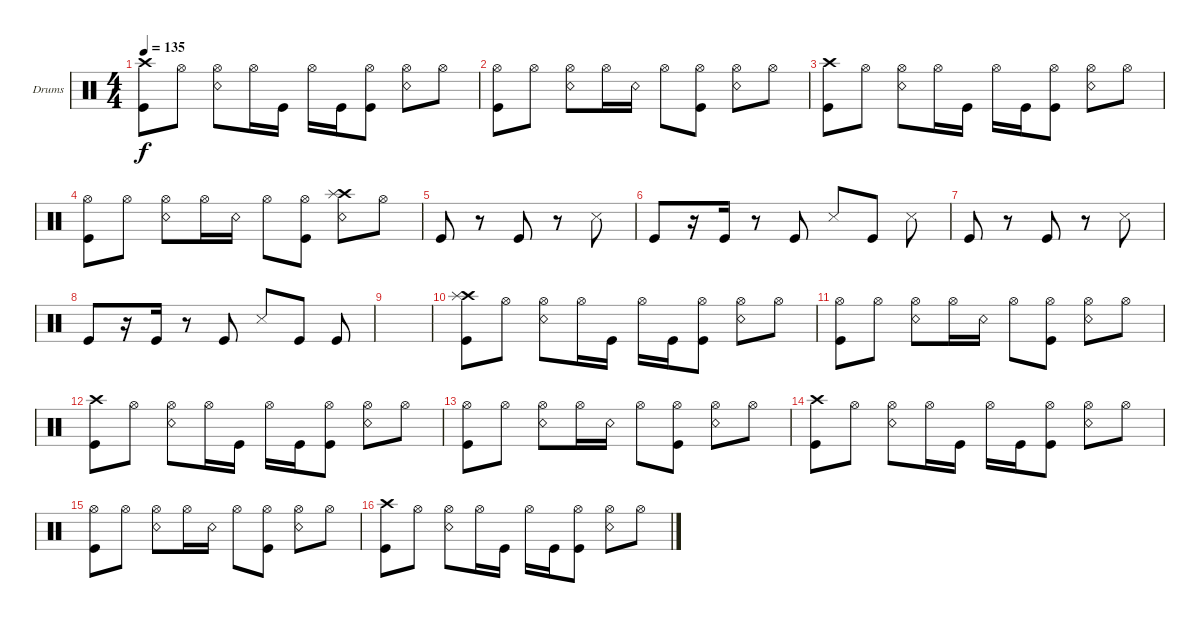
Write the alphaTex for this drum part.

\defaultSystemsLayout 4
\bracketExtendMode groupsimilarinstruments
\firstSystemTrackNameOrientation horizontal
\otherSystemsTrackNameOrientation horizontal
\track ("Drumkit" "Drums") {instrument percussion}
\staff {score}
\articulation defaults
\ts (4 4)
\tempo 135
\clef neutral
\scale
0.333333
\ks c
("Kick (hit)" "Crash high (hit)").8{dy f} "Hi-Hat (open)".8 ("Snare (rim shot)" "Hi-Hat (open)").8 "Hi-Hat (open)".16 "Kick (hit)".16 "Hi-Hat (open)".16 "Kick (hit)".16 ("Kick (hit)" "Hi-Hat (open)").8 ("Snare (rim shot)" "Hi-Hat (open)").8 "Hi-Hat (open)".8 |
\scale
0.333333 ("Kick (hit)" "Hi-Hat (open)").8 "Hi-Hat (open)".8 ("Snare (rim shot)" "Hi-Hat (open)").8 "Hi-Hat (open)".16 "Snare (rim shot)".16 "Hi-Hat (open)".8 ("Hi-Hat (open)" "Kick (hit)").8 ("Snare (rim shot)" "Hi-Hat (open)").8 "Hi-Hat (open)".8 |
\scale
0.333333 ("Kick (hit)" "Crash high (hit)").8 "Hi-Hat (open)".8 ("Snare (rim shot)" "Hi-Hat (open)").8 "Hi-Hat (open)".16 "Kick (hit)".16 "Hi-Hat (open)".16 "Kick (hit)".16 ("Kick (hit)" "Hi-Hat (open)").8 ("Snare (rim shot)" "Hi-Hat (open)").8 "Hi-Hat (open)".8 |
\scale
0.333333 ("Kick (hit)" "Hi-Hat (open)").8 "Hi-Hat (open)".8 ("Snare (rim shot)" "Hi-Hat (open)").8 "Hi-Hat (open)".16 "Snare (rim shot)".16 "Hi-Hat (open)".8 ("Hi-Hat (open)" "Kick (hit)").8 ("Snare (rim shot)" "Crash high (hit)" "Splash (hit)").8 "Hi-Hat (open)".8 |
\scale
0.333333 "Kick (hit)".8 r.8 "Kick (hit)".8 r.8 "Snare (side stick) 3".8 |
\scale
0.333333 "Kick (hit)".8 r.16 "Kick (hit)".16 r.8 "Kick (hit)".8 "Snare (side stick) 3".8 "Kick (hit)".8 "Snare (side stick) 3".8 |
\scale
0.333333 "Kick (hit)".8 r.8 "Kick (hit)".8 r.8 "Snare (side stick) 3".8 |
\scale
0.333333 "Kick (hit)".8 r.16 "Kick (hit)".16 r.8 "Kick (hit)".8 "Snare (side stick) 3".8 "Kick (hit)".8 "Kick (hit)".8 |
\scale
0.333333 |
\scale
0.333333 ("Kick (hit)" "Crash high (hit)" "Splash (hit)").8 "Hi-Hat (open)".8 ("Snare (rim shot)" "Hi-Hat (open)").8 "Hi-Hat (open)".16 "Kick (hit)".16 "Hi-Hat (open)".16 "Kick (hit)".16 ("Kick (hit)" "Hi-Hat (open)").8 ("Snare (rim shot)" "Hi-Hat (open)").8 "Hi-Hat (open)".8 |
\scale
0.333333 ("Kick (hit)" "Hi-Hat (open)").8 "Hi-Hat (open)".8 ("Snare (rim shot)" "Hi-Hat (open)").8 "Hi-Hat (open)".16 "Snare (rim shot)".16 "Hi-Hat (open)".8 ("Hi-Hat (open)" "Kick (hit)").8 ("Snare (rim shot)" "Hi-Hat (open)").8 "Hi-Hat (open)".8 |
\scale
0.333333 ("Kick (hit)" "Crash high (hit)").8 "Hi-Hat (open)".8 ("Snare (rim shot)" "Hi-Hat (open)").8 "Hi-Hat (open)".16 "Kick (hit)".16 "Hi-Hat (open)".16 "Kick (hit)".16 ("Kick (hit)" "Hi-Hat (open)").8 ("Snare (rim shot)" "Hi-Hat (open)").8 "Hi-Hat (open)".8 |
\scale
0.333333 ("Kick (hit)" "Hi-Hat (open)").8 "Hi-Hat (open)".8 ("Snare (rim shot)" "Hi-Hat (open)").8 "Hi-Hat (open)".16 "Snare (rim shot)".16 "Hi-Hat (open)".8 ("Hi-Hat (open)" "Kick (hit)").8 ("Snare (rim shot)" "Hi-Hat (open)").8 "Hi-Hat (open)".8 |
\scale
0.333333 ("Kick (hit)" "Crash high (hit)").8 "Hi-Hat (open)".8 ("Snare (rim shot)" "Hi-Hat (open)").8 "Hi-Hat (open)".16 "Kick (hit)".16 "Hi-Hat (open)".16 "Kick (hit)".16 ("Kick (hit)" "Hi-Hat (open)").8 ("Snare (rim shot)" "Hi-Hat (open)").8 "Hi-Hat (open)".8 |
\scale
0.333333 ("Kick (hit)" "Hi-Hat (open)").8 "Hi-Hat (open)".8 ("Snare (rim shot)" "Hi-Hat (open)").8 "Hi-Hat (open)".16 "Snare (rim shot)".16 "Hi-Hat (open)".8 ("Hi-Hat (open)" "Kick (hit)").8 ("Snare (rim shot)" "Hi-Hat (open)").8 "Hi-Hat (open)".8 |
\scale
0.333333 ("Kick (hit)" "Crash high (hit)").8 "Hi-Hat (open)".8 ("Snare (rim shot)" "Hi-Hat (open)").8 "Hi-Hat (open)".16 "Kick (hit)".16 "Hi-Hat (open)".16 "Kick (hit)".16 ("Kick (hit)" "Hi-Hat (open)").8 ("Snare (rim shot)" "Hi-Hat (open)").8 "Hi-Hat (open)".8
